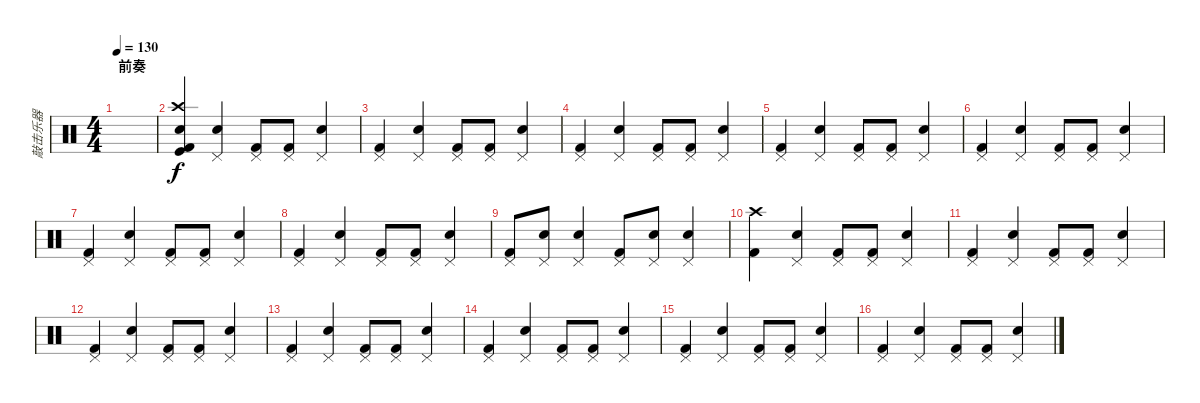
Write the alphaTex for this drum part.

\track ("敲击乐器" "敲击乐器") {instrument percussion}
\staff {score}
\articulation defaults
\ts (4 4)
\section ("" "前奏")
\tempo 130
\clef neutral
\ks c
|
("Kick (hit) 2" "Crash high (hit)" "Kick (hit)" "Metronome (bell)").4 ("Snare (hit) 2" "Pedal Hi-Hat (hit)").4 ("Kick (hit) 2" "Pedal Hi-Hat (hit)").8 ("Kick (hit) 2" "Pedal Hi-Hat (hit)").8 ("Snare (hit) 2" "Pedal Hi-Hat (hit)").4 |
("Kick (hit) 2" "Pedal Hi-Hat (hit)").4 ("Snare (hit) 2" "Pedal Hi-Hat (hit)").4 ("Kick (hit) 2" "Pedal Hi-Hat (hit)").8 ("Kick (hit) 2" "Pedal Hi-Hat (hit)").8 ("Snare (hit) 2" "Pedal Hi-Hat (hit)").4 |
("Kick (hit) 2" "Pedal Hi-Hat (hit)").4 ("Snare (hit) 2" "Pedal Hi-Hat (hit)").4 ("Kick (hit) 2" "Pedal Hi-Hat (hit)").8 ("Kick (hit) 2" "Pedal Hi-Hat (hit)").8 ("Snare (hit) 2" "Pedal Hi-Hat (hit)").4 |
("Kick (hit) 2" "Pedal Hi-Hat (hit)").4 ("Snare (hit) 2" "Pedal Hi-Hat (hit)").4 ("Kick (hit) 2" "Pedal Hi-Hat (hit)").8 ("Kick (hit) 2" "Pedal Hi-Hat (hit)").8 ("Snare (hit) 2" "Pedal Hi-Hat (hit)").4 |
("Kick (hit) 2" "Pedal Hi-Hat (hit)").4 ("Snare (hit) 2" "Pedal Hi-Hat (hit)").4 ("Kick (hit) 2" "Pedal Hi-Hat (hit)").8 ("Kick (hit) 2" "Pedal Hi-Hat (hit)").8 ("Snare (hit) 2" "Pedal Hi-Hat (hit)").4 |
("Kick (hit) 2" "Pedal Hi-Hat (hit)").4 ("Snare (hit) 2" "Pedal Hi-Hat (hit)").4 ("Kick (hit) 2" "Pedal Hi-Hat (hit)").8 ("Kick (hit) 2" "Pedal Hi-Hat (hit)").8 ("Snare (hit) 2" "Pedal Hi-Hat (hit)").4 |
("Kick (hit) 2" "Pedal Hi-Hat (hit)").4 ("Snare (hit) 2" "Pedal Hi-Hat (hit)").4 ("Kick (hit) 2" "Pedal Hi-Hat (hit)").8 ("Kick (hit) 2" "Pedal Hi-Hat (hit)").8 ("Snare (hit) 2" "Pedal Hi-Hat (hit)").4 |
("Kick (hit) 2" "Pedal Hi-Hat (hit)").8 ("Snare (hit) 2" "Pedal Hi-Hat (hit)").8 ("Snare (hit) 2" "Pedal Hi-Hat (hit)").4 ("Kick (hit) 2" "Pedal Hi-Hat (hit)").8 ("Snare (hit) 2" "Pedal Hi-Hat (hit)").8 ("Snare (hit) 2" "Pedal Hi-Hat (hit)").4 |
("Kick (hit) 2" "Crash high (hit)").4 ("Snare (hit) 2" "Pedal Hi-Hat (hit)").4 ("Kick (hit) 2" "Pedal Hi-Hat (hit)").8 ("Kick (hit) 2" "Pedal Hi-Hat (hit)").8 ("Snare (hit) 2" "Pedal Hi-Hat (hit)").4 |
("Kick (hit) 2" "Pedal Hi-Hat (hit)").4 ("Snare (hit) 2" "Pedal Hi-Hat (hit)").4 ("Kick (hit) 2" "Pedal Hi-Hat (hit)").8 ("Kick (hit) 2" "Pedal Hi-Hat (hit)").8 ("Snare (hit) 2" "Pedal Hi-Hat (hit)").4 |
("Kick (hit) 2" "Pedal Hi-Hat (hit)").4 ("Snare (hit) 2" "Pedal Hi-Hat (hit)").4 ("Kick (hit) 2" "Pedal Hi-Hat (hit)").8 ("Kick (hit) 2" "Pedal Hi-Hat (hit)").8 ("Snare (hit) 2" "Pedal Hi-Hat (hit)").4 |
("Kick (hit) 2" "Pedal Hi-Hat (hit)").4 ("Snare (hit) 2" "Pedal Hi-Hat (hit)").4 ("Kick (hit) 2" "Pedal Hi-Hat (hit)").8 ("Kick (hit) 2" "Pedal Hi-Hat (hit)").8 ("Snare (hit) 2" "Pedal Hi-Hat (hit)").4 |
("Kick (hit) 2" "Pedal Hi-Hat (hit)").4 ("Snare (hit) 2" "Pedal Hi-Hat (hit)").4 ("Kick (hit) 2" "Pedal Hi-Hat (hit)").8 ("Kick (hit) 2" "Pedal Hi-Hat (hit)").8 ("Snare (hit) 2" "Pedal Hi-Hat (hit)").4 |
("Kick (hit) 2" "Pedal Hi-Hat (hit)").4 ("Snare (hit) 2" "Pedal Hi-Hat (hit)").4 ("Kick (hit) 2" "Pedal Hi-Hat (hit)").8 ("Kick (hit) 2" "Pedal Hi-Hat (hit)").8 ("Snare (hit) 2" "Pedal Hi-Hat (hit)").4 |
("Kick (hit) 2" "Pedal Hi-Hat (hit)").4 ("Snare (hit) 2" "Pedal Hi-Hat (hit)").4 ("Kick (hit) 2" "Pedal Hi-Hat (hit)").8 ("Kick (hit) 2" "Pedal Hi-Hat (hit)").8 ("Snare (hit) 2" "Pedal Hi-Hat (hit)").4
